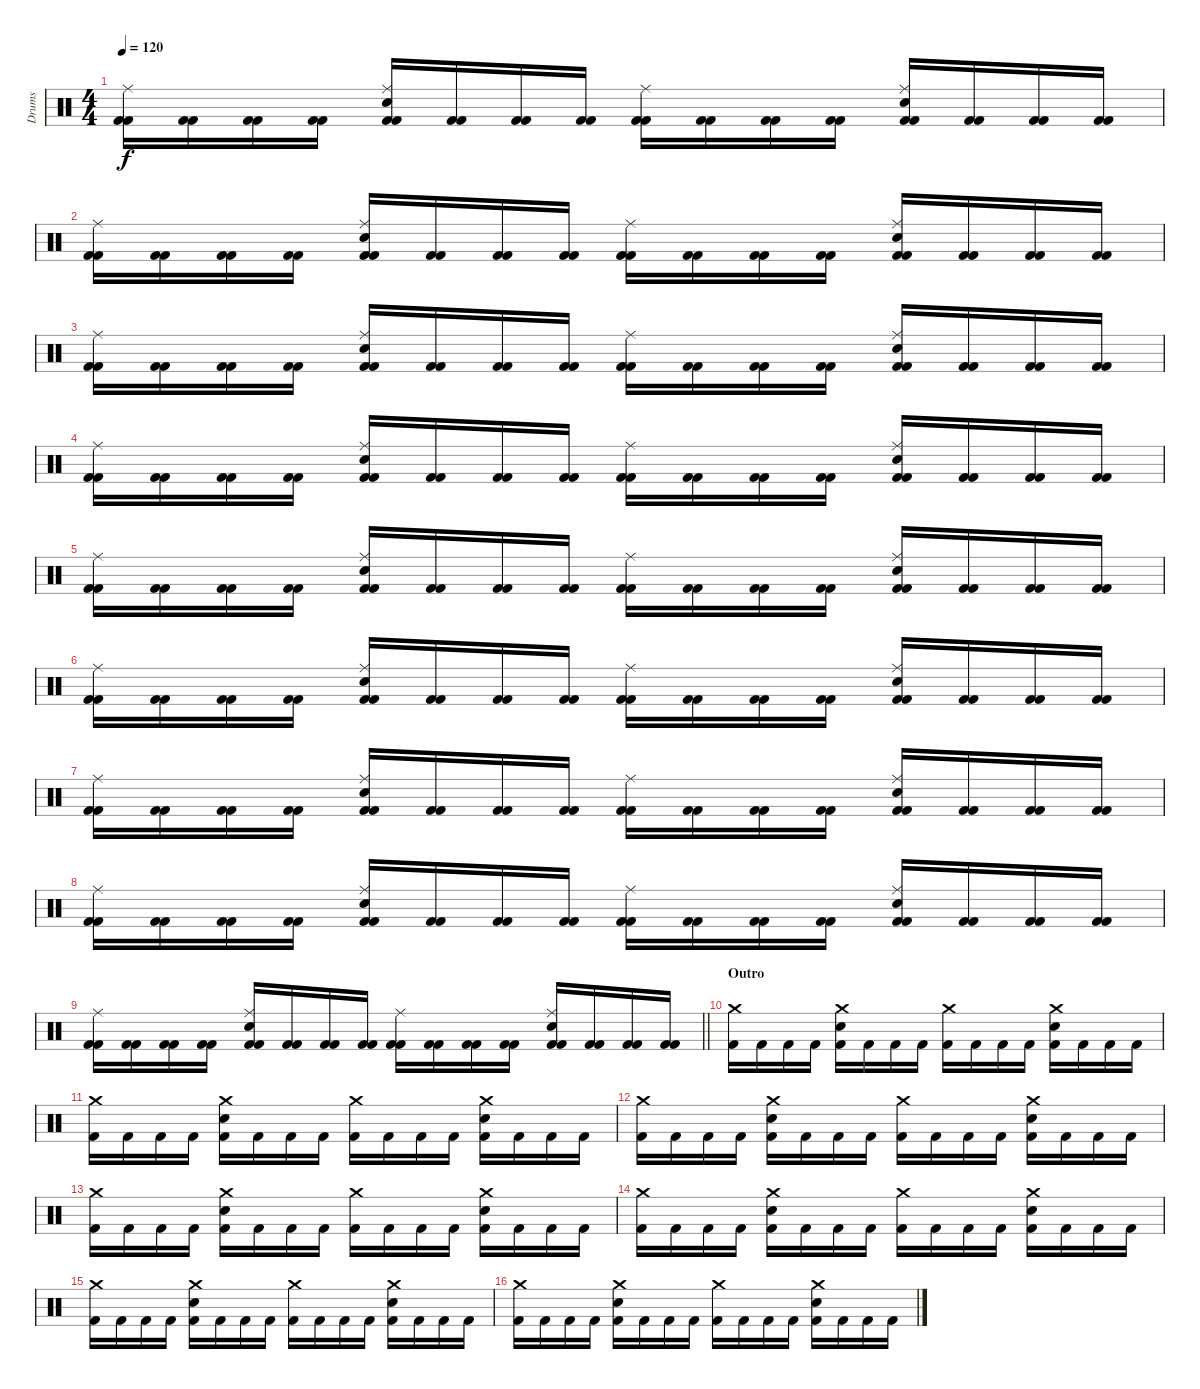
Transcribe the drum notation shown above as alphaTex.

\track ("Drums" "Drums") {instrument percussion}
\staff {score}
\articulation defaults
\ts (4 4)
\tempo 120
\clef neutral
\ks c
("Kick (hit) 2" "Ride (middle)" "Kick (hit) 2").16{dy f} ("Kick (hit) 2" "Kick (hit) 2").16 ("Kick (hit) 2" "Kick (hit) 2").16 ("Kick (hit) 2" "Kick (hit) 2").16 ("Kick (hit) 2" "Ride (middle)" "Electric Snare (hit)" "Kick (hit) 2").16 ("Kick (hit) 2" "Kick (hit) 2").16 ("Kick (hit) 2" "Kick (hit) 2").16 ("Kick (hit) 2" "Kick (hit) 2").16 ("Kick (hit) 2" "Ride (middle)" "Kick (hit) 2").16 ("Kick (hit) 2" "Kick (hit) 2").16 ("Kick (hit) 2" "Kick (hit) 2").16 ("Kick (hit) 2" "Kick (hit) 2").16 ("Kick (hit) 2" "Ride (middle)" "Electric Snare (hit)" "Kick (hit) 2").16 ("Kick (hit) 2" "Kick (hit) 2").16 ("Kick (hit) 2" "Kick (hit) 2").16 ("Kick (hit) 2" "Kick (hit) 2").16 |
("Kick (hit) 2" "Ride (middle)" "Kick (hit) 2").16 ("Kick (hit) 2" "Kick (hit) 2").16 ("Kick (hit) 2" "Kick (hit) 2").16 ("Kick (hit) 2" "Kick (hit) 2").16 ("Kick (hit) 2" "Ride (middle)" "Electric Snare (hit)" "Kick (hit) 2").16 ("Kick (hit) 2" "Kick (hit) 2").16 ("Kick (hit) 2" "Kick (hit) 2").16 ("Kick (hit) 2" "Kick (hit) 2").16 ("Kick (hit) 2" "Ride (middle)" "Kick (hit) 2").16 ("Kick (hit) 2" "Kick (hit) 2").16 ("Kick (hit) 2" "Kick (hit) 2").16 ("Kick (hit) 2" "Kick (hit) 2").16 ("Kick (hit) 2" "Ride (middle)" "Electric Snare (hit)" "Kick (hit) 2").16 ("Kick (hit) 2" "Kick (hit) 2").16 ("Kick (hit) 2" "Kick (hit) 2").16 ("Kick (hit) 2" "Kick (hit) 2").16 |
("Kick (hit) 2" "Ride (middle)" "Kick (hit) 2").16 ("Kick (hit) 2" "Kick (hit) 2").16 ("Kick (hit) 2" "Kick (hit) 2").16 ("Kick (hit) 2" "Kick (hit) 2").16 ("Kick (hit) 2" "Ride (middle)" "Electric Snare (hit)" "Kick (hit) 2").16 ("Kick (hit) 2" "Kick (hit) 2").16 ("Kick (hit) 2" "Kick (hit) 2").16 ("Kick (hit) 2" "Kick (hit) 2").16 ("Kick (hit) 2" "Ride (middle)" "Kick (hit) 2").16 ("Kick (hit) 2" "Kick (hit) 2").16 ("Kick (hit) 2" "Kick (hit) 2").16 ("Kick (hit) 2" "Kick (hit) 2").16 ("Kick (hit) 2" "Ride (middle)" "Electric Snare (hit)" "Kick (hit) 2").16 ("Kick (hit) 2" "Kick (hit) 2").16 ("Kick (hit) 2" "Kick (hit) 2").16 ("Kick (hit) 2" "Kick (hit) 2").16 |
("Kick (hit) 2" "Ride (middle)" "Kick (hit) 2").16 ("Kick (hit) 2" "Kick (hit) 2").16 ("Kick (hit) 2" "Kick (hit) 2").16 ("Kick (hit) 2" "Kick (hit) 2").16 ("Kick (hit) 2" "Ride (middle)" "Electric Snare (hit)" "Kick (hit) 2").16 ("Kick (hit) 2" "Kick (hit) 2").16 ("Kick (hit) 2" "Kick (hit) 2").16 ("Kick (hit) 2" "Kick (hit) 2").16 ("Kick (hit) 2" "Ride (middle)" "Kick (hit) 2").16 ("Kick (hit) 2" "Kick (hit) 2").16 ("Kick (hit) 2" "Kick (hit) 2").16 ("Kick (hit) 2" "Kick (hit) 2").16 ("Kick (hit) 2" "Ride (middle)" "Electric Snare (hit)" "Kick (hit) 2").16 ("Kick (hit) 2" "Kick (hit) 2").16 ("Kick (hit) 2" "Kick (hit) 2").16 ("Kick (hit) 2" "Kick (hit) 2").16 |
("Kick (hit) 2" "Ride (middle)" "Kick (hit) 2").16 ("Kick (hit) 2" "Kick (hit) 2").16 ("Kick (hit) 2" "Kick (hit) 2").16 ("Kick (hit) 2" "Kick (hit) 2").16 ("Kick (hit) 2" "Ride (middle)" "Electric Snare (hit)" "Kick (hit) 2").16 ("Kick (hit) 2" "Kick (hit) 2").16 ("Kick (hit) 2" "Kick (hit) 2").16 ("Kick (hit) 2" "Kick (hit) 2").16 ("Kick (hit) 2" "Ride (middle)" "Kick (hit) 2").16 ("Kick (hit) 2" "Kick (hit) 2").16 ("Kick (hit) 2" "Kick (hit) 2").16 ("Kick (hit) 2" "Kick (hit) 2").16 ("Kick (hit) 2" "Ride (middle)" "Electric Snare (hit)" "Kick (hit) 2").16 ("Kick (hit) 2" "Kick (hit) 2").16 ("Kick (hit) 2" "Kick (hit) 2").16 ("Kick (hit) 2" "Kick (hit) 2").16 |
("Kick (hit) 2" "Ride (middle)" "Kick (hit) 2").16 ("Kick (hit) 2" "Kick (hit) 2").16 ("Kick (hit) 2" "Kick (hit) 2").16 ("Kick (hit) 2" "Kick (hit) 2").16 ("Kick (hit) 2" "Ride (middle)" "Electric Snare (hit)" "Kick (hit) 2").16 ("Kick (hit) 2" "Kick (hit) 2").16 ("Kick (hit) 2" "Kick (hit) 2").16 ("Kick (hit) 2" "Kick (hit) 2").16 ("Kick (hit) 2" "Ride (middle)" "Kick (hit) 2").16 ("Kick (hit) 2" "Kick (hit) 2").16 ("Kick (hit) 2" "Kick (hit) 2").16 ("Kick (hit) 2" "Kick (hit) 2").16 ("Kick (hit) 2" "Ride (middle)" "Electric Snare (hit)" "Kick (hit) 2").16 ("Kick (hit) 2" "Kick (hit) 2").16 ("Kick (hit) 2" "Kick (hit) 2").16 ("Kick (hit) 2" "Kick (hit) 2").16 |
("Kick (hit) 2" "Ride (middle)" "Kick (hit) 2").16 ("Kick (hit) 2" "Kick (hit) 2").16 ("Kick (hit) 2" "Kick (hit) 2").16 ("Kick (hit) 2" "Kick (hit) 2").16 ("Kick (hit) 2" "Ride (middle)" "Electric Snare (hit)" "Kick (hit) 2").16 ("Kick (hit) 2" "Kick (hit) 2").16 ("Kick (hit) 2" "Kick (hit) 2").16 ("Kick (hit) 2" "Kick (hit) 2").16 ("Kick (hit) 2" "Ride (middle)" "Kick (hit) 2").16 ("Kick (hit) 2" "Kick (hit) 2").16 ("Kick (hit) 2" "Kick (hit) 2").16 ("Kick (hit) 2" "Kick (hit) 2").16 ("Kick (hit) 2" "Ride (middle)" "Electric Snare (hit)" "Kick (hit) 2").16 ("Kick (hit) 2" "Kick (hit) 2").16 ("Kick (hit) 2" "Kick (hit) 2").16 ("Kick (hit) 2" "Kick (hit) 2").16 |
("Kick (hit) 2" "Ride (middle)" "Kick (hit) 2").16 ("Kick (hit) 2" "Kick (hit) 2").16 ("Kick (hit) 2" "Kick (hit) 2").16 ("Kick (hit) 2" "Kick (hit) 2").16 ("Kick (hit) 2" "Ride (middle)" "Electric Snare (hit)" "Kick (hit) 2").16 ("Kick (hit) 2" "Kick (hit) 2").16 ("Kick (hit) 2" "Kick (hit) 2").16 ("Kick (hit) 2" "Kick (hit) 2").16 ("Kick (hit) 2" "Ride (middle)" "Kick (hit) 2").16 ("Kick (hit) 2" "Kick (hit) 2").16 ("Kick (hit) 2" "Kick (hit) 2").16 ("Kick (hit) 2" "Kick (hit) 2").16 ("Kick (hit) 2" "Ride (middle)" "Electric Snare (hit)" "Kick (hit) 2").16 ("Kick (hit) 2" "Kick (hit) 2").16 ("Kick (hit) 2" "Kick (hit) 2").16 ("Kick (hit) 2" "Kick (hit) 2").16 |
\barLineRight lightlight
("Kick (hit) 2" "Ride (middle)" "Kick (hit) 2").16 ("Kick (hit) 2" "Kick (hit) 2").16 ("Kick (hit) 2" "Kick (hit) 2").16 ("Kick (hit) 2" "Kick (hit) 2").16 ("Kick (hit) 2" "Ride (middle)" "Electric Snare (hit)" "Kick (hit) 2").16 ("Kick (hit) 2" "Kick (hit) 2").16 ("Kick (hit) 2" "Kick (hit) 2").16 ("Kick (hit) 2" "Kick (hit) 2").16 ("Kick (hit) 2" "Ride (middle)" "Kick (hit) 2").16 ("Kick (hit) 2" "Kick (hit) 2").16 ("Kick (hit) 2" "Kick (hit) 2").16 ("Kick (hit) 2" "Kick (hit) 2").16 ("Kick (hit) 2" "Ride (middle)" "Electric Snare (hit)" "Kick (hit) 2").16 ("Kick (hit) 2" "Kick (hit) 2").16 ("Kick (hit) 2" "Kick (hit) 2").16 ("Kick (hit) 2" "Kick (hit) 2").16 |
\section ("" "Outro")
("Crash medium (hit)" "Kick (hit) 2").16 "Kick (hit) 2".16 "Kick (hit) 2".16 "Kick (hit) 2".16 ("Crash medium (hit)" "Electric Snare (hit)" "Kick (hit) 2").16 "Kick (hit) 2".16 "Kick (hit) 2".16 "Kick (hit) 2".16 ("Crash medium (hit)" "Kick (hit) 2").16 "Kick (hit) 2".16 "Kick (hit) 2".16 "Kick (hit) 2".16 ("Crash medium (hit)" "Electric Snare (hit)" "Kick (hit) 2").16 "Kick (hit) 2".16 "Kick (hit) 2".16 "Kick (hit) 2".16 |
("Crash medium (hit)" "Kick (hit) 2").16 "Kick (hit) 2".16 "Kick (hit) 2".16 "Kick (hit) 2".16 ("Crash medium (hit)" "Electric Snare (hit)" "Kick (hit) 2").16 "Kick (hit) 2".16 "Kick (hit) 2".16 "Kick (hit) 2".16 ("Crash medium (hit)" "Kick (hit) 2").16 "Kick (hit) 2".16 "Kick (hit) 2".16 "Kick (hit) 2".16 ("Crash medium (hit)" "Electric Snare (hit)" "Kick (hit) 2").16 "Kick (hit) 2".16 "Kick (hit) 2".16 "Kick (hit) 2".16 |
("Crash medium (hit)" "Kick (hit) 2").16 "Kick (hit) 2".16 "Kick (hit) 2".16 "Kick (hit) 2".16 ("Crash medium (hit)" "Electric Snare (hit)" "Kick (hit) 2").16 "Kick (hit) 2".16 "Kick (hit) 2".16 "Kick (hit) 2".16 ("Crash medium (hit)" "Kick (hit) 2").16 "Kick (hit) 2".16 "Kick (hit) 2".16 "Kick (hit) 2".16 ("Crash medium (hit)" "Electric Snare (hit)" "Kick (hit) 2").16 "Kick (hit) 2".16 "Kick (hit) 2".16 "Kick (hit) 2".16 |
("Crash medium (hit)" "Kick (hit) 2").16 "Kick (hit) 2".16 "Kick (hit) 2".16 "Kick (hit) 2".16 ("Crash medium (hit)" "Electric Snare (hit)" "Kick (hit) 2").16 "Kick (hit) 2".16 "Kick (hit) 2".16 "Kick (hit) 2".16 ("Crash medium (hit)" "Kick (hit) 2").16 "Kick (hit) 2".16 "Kick (hit) 2".16 "Kick (hit) 2".16 ("Crash medium (hit)" "Electric Snare (hit)" "Kick (hit) 2").16 "Kick (hit) 2".16 "Kick (hit) 2".16 "Kick (hit) 2".16 |
("Crash medium (hit)" "Kick (hit) 2").16 "Kick (hit) 2".16 "Kick (hit) 2".16 "Kick (hit) 2".16 ("Crash medium (hit)" "Electric Snare (hit)" "Kick (hit) 2").16 "Kick (hit) 2".16 "Kick (hit) 2".16 "Kick (hit) 2".16 ("Crash medium (hit)" "Kick (hit) 2").16 "Kick (hit) 2".16 "Kick (hit) 2".16 "Kick (hit) 2".16 ("Crash medium (hit)" "Electric Snare (hit)" "Kick (hit) 2").16 "Kick (hit) 2".16 "Kick (hit) 2".16 "Kick (hit) 2".16 |
("Crash medium (hit)" "Kick (hit) 2").16 "Kick (hit) 2".16 "Kick (hit) 2".16 "Kick (hit) 2".16 ("Crash medium (hit)" "Electric Snare (hit)" "Kick (hit) 2").16 "Kick (hit) 2".16 "Kick (hit) 2".16 "Kick (hit) 2".16 ("Crash medium (hit)" "Kick (hit) 2").16 "Kick (hit) 2".16 "Kick (hit) 2".16 "Kick (hit) 2".16 ("Crash medium (hit)" "Electric Snare (hit)" "Kick (hit) 2").16 "Kick (hit) 2".16 "Kick (hit) 2".16 "Kick (hit) 2".16 |
("Crash medium (hit)" "Kick (hit) 2").16 "Kick (hit) 2".16 "Kick (hit) 2".16 "Kick (hit) 2".16 ("Crash medium (hit)" "Electric Snare (hit)" "Kick (hit) 2").16 "Kick (hit) 2".16 "Kick (hit) 2".16 "Kick (hit) 2".16 ("Crash medium (hit)" "Kick (hit) 2").16 "Kick (hit) 2".16 "Kick (hit) 2".16 "Kick (hit) 2".16 ("Crash medium (hit)" "Electric Snare (hit)" "Kick (hit) 2").16 "Kick (hit) 2".16 "Kick (hit) 2".16 "Kick (hit) 2".16
